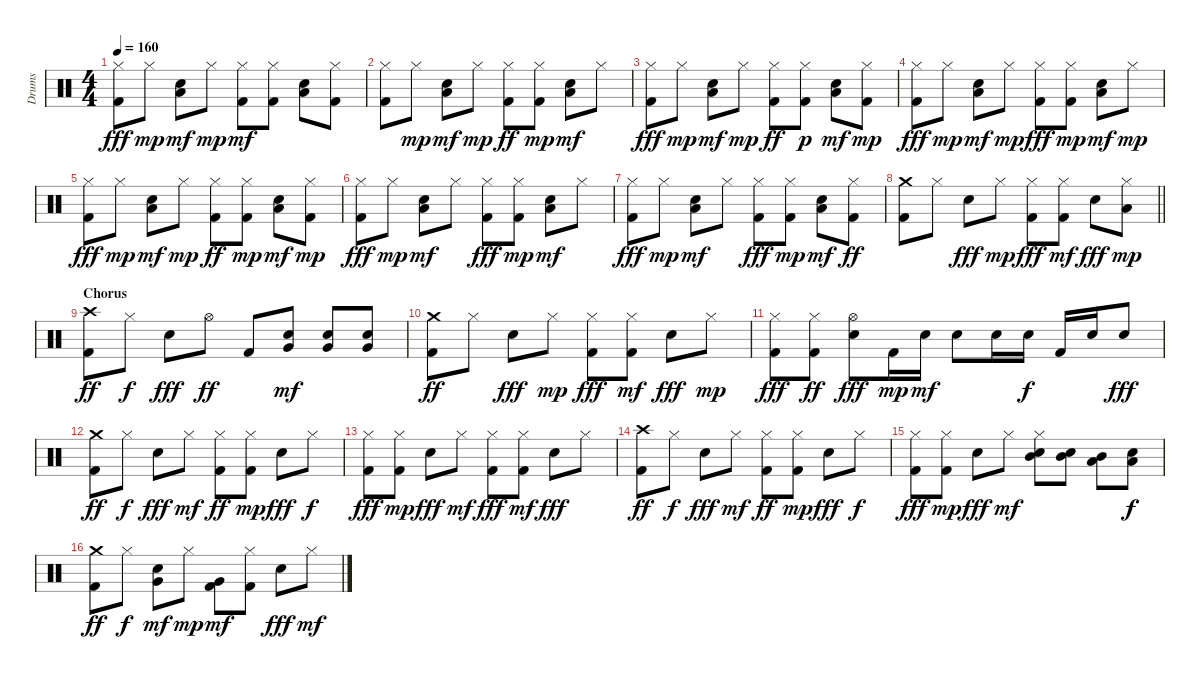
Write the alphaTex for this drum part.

\track ("Drums" "Drums") {instrument percussion}
\staff {score}
\articulation defaults
\ts (4 4)
\tempo 160
\clef neutral
\ks c
("Kick (hit) 2" "Hi-Hat (closed)").8{dy fff} "Hi-Hat (closed)".8{dy mp} ("Electric Snare (hit)" "Low Tom (hit)").8{dy mf} "Hi-Hat (closed)".8{dy mp} ("Kick (hit) 2" "Hi-Hat (closed)").8{dy mf} ("Kick (hit) 2" "Hi-Hat (closed)").8 ("Electric Snare (hit)" "Low Tom (hit)").8 ("Kick (hit) 2" "Hi-Hat (closed)").8 |
("Kick (hit) 2" "Hi-Hat (closed)").8 "Hi-Hat (closed)".8{dy mp} ("Electric Snare (hit)" "Low Tom (hit)").8{dy mf} "Hi-Hat (closed)".8{dy mp} ("Kick (hit) 2" "Hi-Hat (closed)").8{dy ff} ("Kick (hit) 2" "Hi-Hat (closed)").8{dy mp} ("Electric Snare (hit)" "Low Tom (hit)").8{dy mf} "Hi-Hat (closed)".8 |
("Kick (hit) 2" "Hi-Hat (closed)").8{dy fff} "Hi-Hat (closed)".8{dy mp} ("Electric Snare (hit)" "Low Tom (hit)").8{dy mf} "Hi-Hat (closed)".8{dy mp} ("Kick (hit) 2" "Hi-Hat (closed)").8{dy ff} ("Kick (hit) 2" "Hi-Hat (closed)").8{dy p} ("Electric Snare (hit)" "Low Tom (hit)").8{dy mf} ("Kick (hit) 2" "Hi-Hat (closed)").8{dy mp} |
("Kick (hit) 2" "Hi-Hat (closed)").8{dy fff} "Hi-Hat (closed)".8{dy mp} ("Electric Snare (hit)" "Low Tom (hit)").8{dy mf} "Hi-Hat (closed)".8{dy mp} ("Kick (hit) 2" "Hi-Hat (closed)").8{dy fff} ("Kick (hit) 2" "Hi-Hat (closed)").8{dy mp} ("Electric Snare (hit)" "Low Tom (hit)").8{dy mf} "Hi-Hat (closed)".8{dy mp} |
("Kick (hit) 2" "Hi-Hat (closed)").8{dy fff} "Hi-Hat (closed)".8{dy mp} ("Electric Snare (hit)" "Low Tom (hit)").8{dy mf} "Hi-Hat (closed)".8{dy mp} ("Kick (hit) 2" "Hi-Hat (closed)").8{dy ff} ("Kick (hit) 2" "Hi-Hat (closed)").8{dy mp} ("Electric Snare (hit)" "Low Tom (hit)").8{dy mf} ("Kick (hit) 2" "Hi-Hat (closed)").8{dy mp} |
("Kick (hit) 2" "Hi-Hat (closed)").8{dy fff} "Hi-Hat (closed)".8{dy mp} ("Electric Snare (hit)" "Low Tom (hit)").8{dy mf} "Hi-Hat (closed)".8 ("Kick (hit) 2" "Hi-Hat (closed)").8{dy fff} ("Kick (hit) 2" "Hi-Hat (closed)").8{dy mp} ("Electric Snare (hit)" "Low Tom (hit)").8{dy mf} "Hi-Hat (closed)".8 |
("Kick (hit) 2" "Hi-Hat (closed)").8{dy fff} "Hi-Hat (closed)".8{dy mp} ("Electric Snare (hit)" "Low Tom (hit)").8{dy mf} "Hi-Hat (closed)".8 ("Kick (hit) 2" "Hi-Hat (closed)").8{dy fff} ("Kick (hit) 2" "Hi-Hat (closed)").8{dy mp} ("Electric Snare (hit)" "Low Tom (hit)").8{dy mf} ("Kick (hit) 2" "Hi-Hat (closed)").8{dy ff} |
\barLineRight lightlight
("Kick (hit) 2" "Crash medium (hit)").8 "Hi-Hat (closed)".8 "Electric Snare (hit)".8{dy fff} "Hi-Hat (closed)".8{dy mp} ("Kick (hit) 2" "Hi-Hat (closed)").8{dy fff} ("Kick (hit) 2" "Hi-Hat (closed)").8{dy mf} "Electric Snare (hit)".8{dy fff} ("Hi-Hat (closed)" "Low Tom (hit)").8{dy mp} |
\section ("" "Chorus")
("Kick (hit) 2" "Crash high (hit)").8{dy ff} "Hi-Hat (closed)".8{dy f} "Electric Snare (hit)".8{dy fff} "Hi-Hat (open)".8{dy ff} "Kick (hit) 2".8 ("Electric Snare (hit)" "Very Low Tom (hit)").8{dy mf} ("Electric Snare (hit)" "Very Low Tom (hit)").8 ("Electric Snare (hit)" "Very Low Tom (hit)").8 |
("Kick (hit) 2" "Crash medium (hit)").8{dy ff} "Hi-Hat (closed)".8 "Electric Snare (hit)".8{dy fff} "Hi-Hat (closed)".8{dy mp} ("Kick (hit) 2" "Hi-Hat (closed)").8{dy fff} ("Kick (hit) 2" "Hi-Hat (closed)").8{dy mf} "Electric Snare (hit)".8{dy fff} "Hi-Hat (closed)".8{dy mp} |
("Kick (hit) 2" "Hi-Hat (closed)").8{dy fff} ("Kick (hit) 2" "Hi-Hat (closed)").8{dy ff} ("Electric Snare (hit)" "Hi-Hat (open)").8{dy fff} "Kick (hit) 2".16{dy mp} "Electric Snare (hit)".16{dy mf} "Electric Snare (hit)".8 "Electric Snare (hit)".16 "Electric Snare (hit)".16{dy f} "Kick (hit) 2".16 "Electric Snare (hit)".16 "Electric Snare (hit)".8{dy fff} |
("Kick (hit) 2" "Crash medium (hit)").8{dy ff} "Hi-Hat (closed)".8{dy f} "Electric Snare (hit)".8{dy fff} "Hi-Hat (closed)".8{dy mf} ("Kick (hit) 2" "Hi-Hat (closed)").8{dy ff} ("Kick (hit) 2" "Hi-Hat (closed)").8{dy mp} "Electric Snare (hit)".8{dy fff} "Hi-Hat (closed)".8{dy f} |
("Kick (hit) 2" "Hi-Hat (closed)").8{dy fff} ("Kick (hit) 2" "Hi-Hat (closed)").8{dy mp} "Electric Snare (hit)".8{dy fff} "Hi-Hat (closed)".8{dy mf} ("Kick (hit) 2" "Hi-Hat (closed)").8{dy fff} ("Kick (hit) 2" "Hi-Hat (closed)").8{dy mf} "Electric Snare (hit)".8{dy fff} "Hi-Hat (closed)".8 |
("Kick (hit) 2" "Crash high (hit)").8{dy ff} "Hi-Hat (closed)".8{dy f} "Electric Snare (hit)".8{dy fff} "Hi-Hat (closed)".8{dy mf} ("Kick (hit) 2" "Hi-Hat (closed)").8{dy ff} ("Kick (hit) 2" "Hi-Hat (closed)").8{dy mp} "Electric Snare (hit)".8{dy fff} "Hi-Hat (closed)".8{dy f} |
("Kick (hit) 2" "Hi-Hat (closed)").8{dy fff} ("Kick (hit) 2" "Hi-Hat (closed)").8{dy mp} "Electric Snare (hit)".8{dy fff} "Hi-Hat (closed)".8{dy mf} ("Electric Snare (hit)" "Hi-Hat (closed)" "Mid Tom (hit)").8 ("Electric Snare (hit)" "Mid Tom (hit)").8 ("Low Tom (hit)" "Mid Tom (hit)").8 ("Electric Snare (hit)" "Low Tom (hit)").8{dy f} |
("Kick (hit) 2" "Crash medium (hit)").8{dy ff} "Hi-Hat (closed)".8{dy f} ("Electric Snare (hit)" "Very Low Tom (hit)").8{dy mf} "Hi-Hat (closed)".8{dy mp} ("Kick (hit) 2" "Very Low Tom (hit)").8{dy mf} ("Kick (hit) 2" "Hi-Hat (closed)").8 "Electric Snare (hit)".8{dy fff} "Hi-Hat (closed)".8{dy mf}
